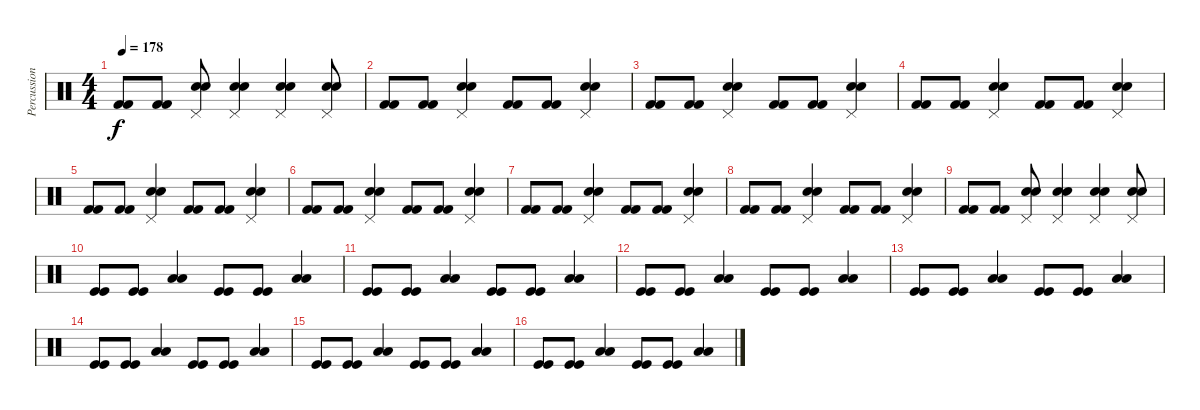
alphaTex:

\track ("Percussion" "Percussion") {instrument percussion}
\staff {score}
\articulation defaults
\ts (4 4)
\tempo 178
\clef neutral
\ks c
("Kick (hit) 2" "Kick (hit) 2").8{dy f} ("Kick (hit) 2" "Kick (hit) 2").8 ("Snare (hit) 2" "Electric Snare (hit)" "Pedal Hi-Hat (hit)").8 ("Snare (hit) 2" "Electric Snare (hit)" "Pedal Hi-Hat (hit)").4 ("Snare (hit) 2" "Electric Snare (hit)" "Pedal Hi-Hat (hit)").4 ("Snare (hit) 2" "Electric Snare (hit)" "Pedal Hi-Hat (hit)").8 |
("Kick (hit) 2" "Kick (hit) 2").8 ("Kick (hit) 2" "Kick (hit) 2").8 ("Snare (hit) 2" "Electric Snare (hit)" "Pedal Hi-Hat (hit)").4 ("Kick (hit) 2" "Kick (hit) 2").8 ("Kick (hit) 2" "Kick (hit) 2").8 ("Snare (hit) 2" "Electric Snare (hit)" "Pedal Hi-Hat (hit)").4 |
("Kick (hit) 2" "Kick (hit) 2").8 ("Kick (hit) 2" "Kick (hit) 2").8 ("Snare (hit) 2" "Electric Snare (hit)" "Pedal Hi-Hat (hit)").4 ("Kick (hit) 2" "Kick (hit) 2").8 ("Kick (hit) 2" "Kick (hit) 2").8 ("Snare (hit) 2" "Electric Snare (hit)" "Pedal Hi-Hat (hit)").4 |
("Kick (hit) 2" "Kick (hit) 2").8 ("Kick (hit) 2" "Kick (hit) 2").8 ("Snare (hit) 2" "Electric Snare (hit)" "Pedal Hi-Hat (hit)").4 ("Kick (hit) 2" "Kick (hit) 2").8 ("Kick (hit) 2" "Kick (hit) 2").8 ("Snare (hit) 2" "Electric Snare (hit)" "Pedal Hi-Hat (hit)").4 |
("Kick (hit) 2" "Kick (hit) 2").8 ("Kick (hit) 2" "Kick (hit) 2").8 ("Snare (hit) 2" "Electric Snare (hit)" "Pedal Hi-Hat (hit)").4 ("Kick (hit) 2" "Kick (hit) 2").8 ("Kick (hit) 2" "Kick (hit) 2").8 ("Snare (hit) 2" "Electric Snare (hit)" "Pedal Hi-Hat (hit)").4 |
("Kick (hit) 2" "Kick (hit) 2").8 ("Kick (hit) 2" "Kick (hit) 2").8 ("Snare (hit) 2" "Electric Snare (hit)" "Pedal Hi-Hat (hit)").4 ("Kick (hit) 2" "Kick (hit) 2").8 ("Kick (hit) 2" "Kick (hit) 2").8 ("Snare (hit) 2" "Electric Snare (hit)" "Pedal Hi-Hat (hit)").4 |
("Kick (hit) 2" "Kick (hit) 2").8 ("Kick (hit) 2" "Kick (hit) 2").8 ("Snare (hit) 2" "Electric Snare (hit)" "Pedal Hi-Hat (hit)").4 ("Kick (hit) 2" "Kick (hit) 2").8 ("Kick (hit) 2" "Kick (hit) 2").8 ("Snare (hit) 2" "Electric Snare (hit)" "Pedal Hi-Hat (hit)").4 |
("Kick (hit) 2" "Kick (hit) 2").8 ("Kick (hit) 2" "Kick (hit) 2").8 ("Snare (hit) 2" "Electric Snare (hit)" "Pedal Hi-Hat (hit)").4 ("Kick (hit) 2" "Kick (hit) 2").8 ("Kick (hit) 2" "Kick (hit) 2").8 ("Snare (hit) 2" "Electric Snare (hit)" "Pedal Hi-Hat (hit)").4 |
("Kick (hit) 2" "Kick (hit) 2").8 ("Kick (hit) 2" "Kick (hit) 2").8 ("Snare (hit) 2" "Electric Snare (hit)" "Pedal Hi-Hat (hit)").8 ("Snare (hit) 2" "Electric Snare (hit)" "Pedal Hi-Hat (hit)").4 ("Snare (hit) 2" "Electric Snare (hit)" "Pedal Hi-Hat (hit)").4 ("Snare (hit) 2" "Electric Snare (hit)" "Pedal Hi-Hat (hit)").8 |
("Kick (hit)" "Kick (hit)").8 ("Kick (hit)" "Kick (hit)").8 ("Low Tom (hit)" "Low Tom (hit)").4 ("Kick (hit)" "Kick (hit)").8 ("Kick (hit)" "Kick (hit)").8 ("Low Tom (hit)" "Low Tom (hit)").4 |
("Kick (hit)" "Kick (hit)").8 ("Kick (hit)" "Kick (hit)").8 ("Low Tom (hit)" "Low Tom (hit)").4 ("Kick (hit)" "Kick (hit)").8 ("Kick (hit)" "Kick (hit)").8 ("Low Tom (hit)" "Low Tom (hit)").4 |
("Kick (hit)" "Kick (hit)").8 ("Kick (hit)" "Kick (hit)").8 ("Low Tom (hit)" "Low Tom (hit)").4 ("Kick (hit)" "Kick (hit)").8 ("Kick (hit)" "Kick (hit)").8 ("Low Tom (hit)" "Low Tom (hit)").4 |
("Kick (hit)" "Kick (hit)").8 ("Kick (hit)" "Kick (hit)").8 ("Low Tom (hit)" "Low Tom (hit)").4 ("Kick (hit)" "Kick (hit)").8 ("Kick (hit)" "Kick (hit)").8 ("Low Tom (hit)" "Low Tom (hit)").4 |
("Kick (hit)" "Kick (hit)").8 ("Kick (hit)" "Kick (hit)").8 ("Low Tom (hit)" "Low Tom (hit)").4 ("Kick (hit)" "Kick (hit)").8 ("Kick (hit)" "Kick (hit)").8 ("Low Tom (hit)" "Low Tom (hit)").4 |
("Kick (hit)" "Kick (hit)").8 ("Kick (hit)" "Kick (hit)").8 ("Low Tom (hit)" "Low Tom (hit)").4 ("Kick (hit)" "Kick (hit)").8 ("Kick (hit)" "Kick (hit)").8 ("Low Tom (hit)" "Low Tom (hit)").4 |
("Kick (hit)" "Kick (hit)").8 ("Kick (hit)" "Kick (hit)").8 ("Low Tom (hit)" "Low Tom (hit)").4 ("Kick (hit)" "Kick (hit)").8 ("Kick (hit)" "Kick (hit)").8 ("Low Tom (hit)" "Low Tom (hit)").4
